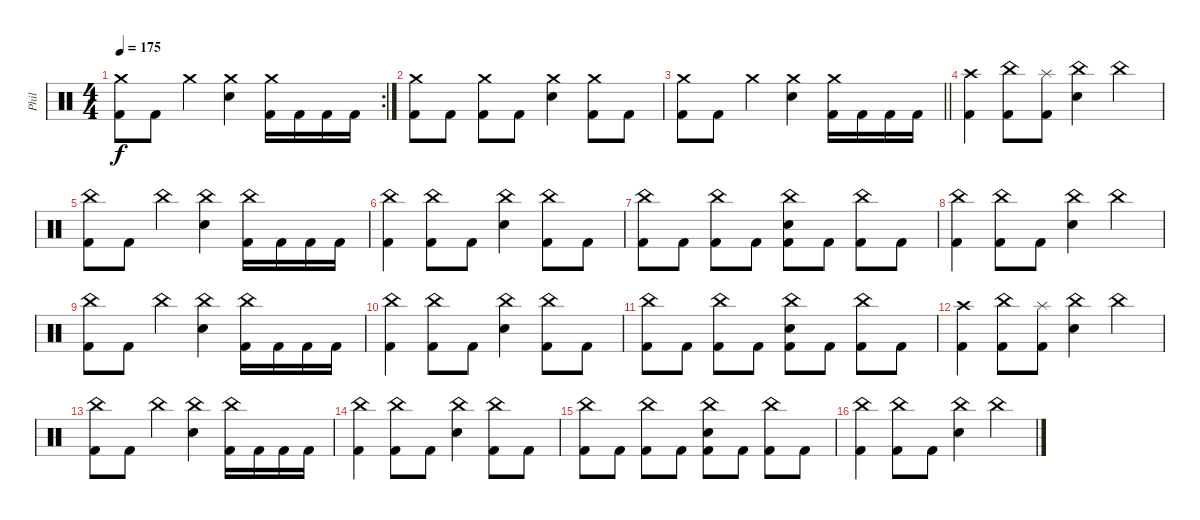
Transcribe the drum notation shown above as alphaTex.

\track ("Phil" "Phil") {instrument percussion}
\staff {score}
\articulation defaults
\rc 2
\ts (4 4)
\tempo 175
\clef neutral
\ks c
("Crash medium (hit)" "Kick (hit) 2").8{dy f} "Kick (hit) 2".8 "Crash medium (hit)".4 ("Crash medium (hit)" "Electric Snare (hit)").4 ("Crash medium (hit)" "Kick (hit) 2").16 "Kick (hit) 2".16 "Kick (hit) 2".16 "Kick (hit) 2".16 |
("Crash medium (hit)" "Kick (hit) 2").8 "Kick (hit) 2".8 ("Crash medium (hit)" "Kick (hit) 2").8 "Kick (hit) 2".8 ("Crash medium (hit)" "Electric Snare (hit)").4 ("Crash medium (hit)" "Kick (hit) 2").8 "Kick (hit) 2".8 |
\barLineRight lightlight
("Crash medium (hit)" "Kick (hit) 2").8 "Kick (hit) 2".8 "Crash medium (hit)".4 ("Crash medium (hit)" "Electric Snare (hit)").4 ("Crash medium (hit)" "Kick (hit) 2").16 "Kick (hit) 2".16 "Kick (hit) 2".16 "Kick (hit) 2".16 |
\section ("" "")
("Crash high (hit)" "Kick (hit) 2").4 ("China (hit)" "Kick (hit) 2").8 ("Splash (hit)" "Kick (hit) 2").8 ("China (hit)" "Electric Snare (hit)").4 "China (hit)".4 |
("China (hit)" "Kick (hit) 2").8 "Kick (hit) 2".8 "China (hit)".4 ("China (hit)" "Electric Snare (hit)").4 ("China (hit)" "Kick (hit) 2").16 "Kick (hit) 2".16 "Kick (hit) 2".16 "Kick (hit) 2".16 |
("China (hit)" "Kick (hit) 2").4 ("China (hit)" "Kick (hit) 2").8 "Kick (hit) 2".8 ("China (hit)" "Electric Snare (hit)").4 ("China (hit)" "Kick (hit) 2").8 "Kick (hit) 2".8 |
("China (hit)" "Kick (hit) 2").8 "Kick (hit) 2".8 ("China (hit)" "Kick (hit) 2").8 "Kick (hit) 2".8 ("China (hit)" "Electric Snare (hit)" "Kick (hit) 2").8 "Kick (hit) 2".8 ("China (hit)" "Kick (hit) 2").8 "Kick (hit) 2".8 |
("China (hit)" "Kick (hit) 2").4 ("China (hit)" "Kick (hit) 2").8 "Kick (hit) 2".8 ("China (hit)" "Electric Snare (hit)").4 "China (hit)".4 |
("China (hit)" "Kick (hit) 2").8 "Kick (hit) 2".8 "China (hit)".4 ("China (hit)" "Electric Snare (hit)").4 ("China (hit)" "Kick (hit) 2").16 "Kick (hit) 2".16 "Kick (hit) 2".16 "Kick (hit) 2".16 |
("China (hit)" "Kick (hit) 2").4 ("China (hit)" "Kick (hit) 2").8 "Kick (hit) 2".8 ("China (hit)" "Electric Snare (hit)").4 ("China (hit)" "Kick (hit) 2").8 "Kick (hit) 2".8 |
("China (hit)" "Kick (hit) 2").8 "Kick (hit) 2".8 ("China (hit)" "Kick (hit) 2").8 "Kick (hit) 2".8 ("China (hit)" "Electric Snare (hit)" "Kick (hit) 2").8 "Kick (hit) 2".8 ("China (hit)" "Kick (hit) 2").8 "Kick (hit) 2".8 |
("Crash high (hit)" "Kick (hit) 2").4 ("China (hit)" "Kick (hit) 2").8 ("Splash (hit)" "Kick (hit) 2").8 ("China (hit)" "Electric Snare (hit)").4 "China (hit)".4 |
("China (hit)" "Kick (hit) 2").8 "Kick (hit) 2".8 "China (hit)".4 ("China (hit)" "Electric Snare (hit)").4 ("China (hit)" "Kick (hit) 2").16 "Kick (hit) 2".16 "Kick (hit) 2".16 "Kick (hit) 2".16 |
("China (hit)" "Kick (hit) 2").4 ("China (hit)" "Kick (hit) 2").8 "Kick (hit) 2".8 ("China (hit)" "Electric Snare (hit)").4 ("China (hit)" "Kick (hit) 2").8 "Kick (hit) 2".8 |
("China (hit)" "Kick (hit) 2").8 "Kick (hit) 2".8 ("China (hit)" "Kick (hit) 2").8 "Kick (hit) 2".8 ("China (hit)" "Electric Snare (hit)" "Kick (hit) 2").8 "Kick (hit) 2".8 ("China (hit)" "Kick (hit) 2").8 "Kick (hit) 2".8 |
("China (hit)" "Kick (hit) 2").4 ("China (hit)" "Kick (hit) 2").8 "Kick (hit) 2".8 ("China (hit)" "Electric Snare (hit)").4 "China (hit)".4
